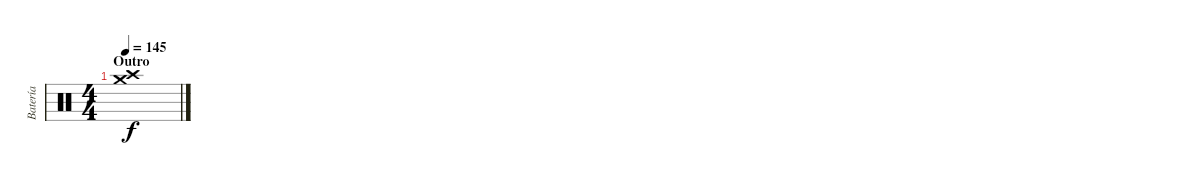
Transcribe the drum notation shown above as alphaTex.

\track ("Batería" "Batería") {instrument percussion}
\staff {score}
\articulation defaults
\ts (4 4)
\section ("" "Outro")
\tempo 145
\clef neutral
\ks c
("Crash medium (hit)" "Crash high (hit)").1{dy f}
